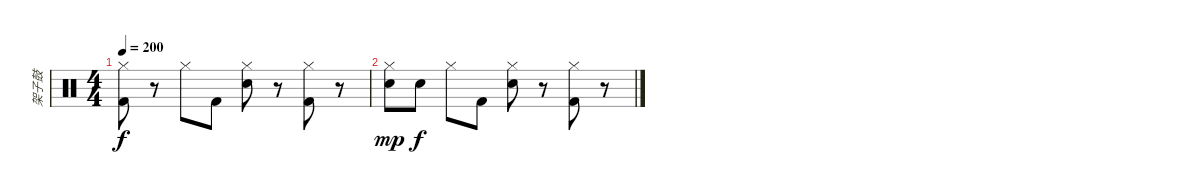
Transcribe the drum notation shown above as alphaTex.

\track ("架子鼓" "架子鼓") {instrument percussion}
\staff {score}
\articulation defaults
\ts (4 4)
\tempo 200
\clef neutral
\ks c
("Kick (hit) 2" "Hi-Hat (closed)").8{dy f} r.8 "Hi-Hat (closed)".8 "Kick (hit) 2".8 ("Snare (hit) 2" "Hi-Hat (closed)").8 r.8 ("Hi-Hat (closed)" "Kick (hit) 2").8 r.8 |
("Snare (hit) 2" "Hi-Hat (closed)").8{dy mp} "Snare (hit) 2".8{dy f} "Hi-Hat (closed)".8 "Kick (hit) 2".8 ("Snare (hit) 2" "Hi-Hat (closed)").8 r.8 ("Kick (hit) 2" "Hi-Hat (closed)").8 r.8
